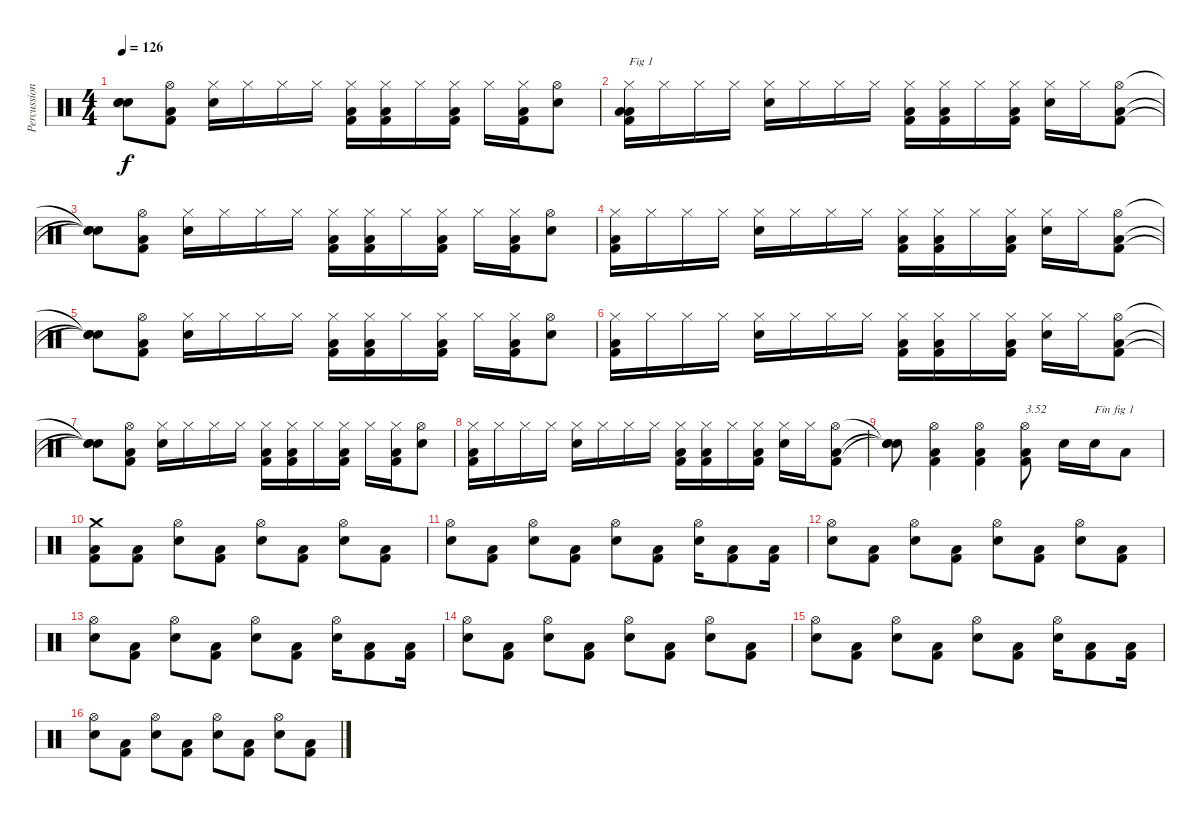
\track ("Percussions" "Percussion") {instrument percussion}
\staff {score}
\articulation defaults
\ts (4 4)
\tempo 126
\clef neutral
\ks c
("Snare (hit)"{t} "Snare (hit)"{t} "Snare (hit)"{t}).8{dy f} ("Kick (hit) 2" "Low Floor Tom (hit)" "Hi-Hat (open)").8 ("Snare (hit) 2" "Hi-Hat (closed)").16 "Hi-Hat (closed)".16 "Hi-Hat (closed)".16 "Hi-Hat (closed)".16 ("Kick (hit) 2" "Low Floor Tom (hit)" "Hi-Hat (closed)").16 ("Kick (hit) 2" "Low Floor Tom (hit)" "Hi-Hat (closed)").16 "Hi-Hat (closed)".16 ("Kick (hit) 2" "Low Floor Tom (hit)" "Hi-Hat (closed)").16 "Hi-Hat (closed)".16 ("Kick (hit) 2" "Low Floor Tom (hit)" "Hi-Hat (closed)").16 ("Snare (hit) 2" "Hi-Hat (open)").8 |
("Kick (hit) 2" "Low Floor Tom (hit)" "Low Tom (hit)" "Hi-Hat (closed)").16{txt "Fig 1"} "Hi-Hat (closed)".16 "Hi-Hat (closed)".16 "Hi-Hat (closed)".16 ("Snare (hit) 2" "Hi-Hat (closed)").16 "Hi-Hat (closed)".16 "Hi-Hat (closed)".16 "Hi-Hat (closed)".16 ("Kick (hit) 2" "Low Floor Tom (hit)" "Hi-Hat (closed)").16 ("Kick (hit) 2" "Low Floor Tom (hit)" "Hi-Hat (closed)").16 "Hi-Hat (closed)".16 ("Kick (hit) 2" "Low Floor Tom (hit)" "Hi-Hat (closed)").16 ("Snare (hit) 2" "Hi-Hat (closed)").16 "Hi-Hat (closed)".16 ("Kick (hit) 2" "Low Floor Tom (hit)" "Hi-Hat (open)").8 |
("Snare (hit)"{t} "Snare (hit)"{t} "Snare (hit)"{t}).8 ("Kick (hit) 2" "Low Floor Tom (hit)" "Hi-Hat (open)").8 ("Snare (hit) 2" "Hi-Hat (closed)").16 "Hi-Hat (closed)".16 "Hi-Hat (closed)".16 "Hi-Hat (closed)".16 ("Kick (hit) 2" "Low Floor Tom (hit)" "Hi-Hat (closed)").16 ("Kick (hit) 2" "Low Floor Tom (hit)" "Hi-Hat (closed)").16 "Hi-Hat (closed)".16 ("Kick (hit) 2" "Low Floor Tom (hit)" "Hi-Hat (closed)").16 "Hi-Hat (closed)".16 ("Kick (hit) 2" "Low Floor Tom (hit)" "Hi-Hat (closed)").16 ("Snare (hit) 2" "Hi-Hat (open)").8 |
("Kick (hit) 2" "Low Floor Tom (hit)" "Hi-Hat (closed)").16 "Hi-Hat (closed)".16 "Hi-Hat (closed)".16 "Hi-Hat (closed)".16 ("Snare (hit) 2" "Hi-Hat (closed)").16 "Hi-Hat (closed)".16 "Hi-Hat (closed)".16 "Hi-Hat (closed)".16 ("Kick (hit) 2" "Low Floor Tom (hit)" "Hi-Hat (closed)").16 ("Kick (hit) 2" "Low Floor Tom (hit)" "Hi-Hat (closed)").16 "Hi-Hat (closed)".16 ("Kick (hit) 2" "Low Floor Tom (hit)" "Hi-Hat (closed)").16 ("Snare (hit) 2" "Hi-Hat (closed)").16 "Hi-Hat (closed)".16 ("Kick (hit) 2" "Low Floor Tom (hit)" "Hi-Hat (open)").8 |
("Snare (hit)"{t} "Snare (hit)"{t} "Snare (hit)"{t}).8 ("Kick (hit) 2" "Low Floor Tom (hit)" "Hi-Hat (open)").8 ("Snare (hit) 2" "Hi-Hat (closed)").16 "Hi-Hat (closed)".16 "Hi-Hat (closed)".16 "Hi-Hat (closed)".16 ("Kick (hit) 2" "Low Floor Tom (hit)" "Hi-Hat (closed)").16 ("Kick (hit) 2" "Low Floor Tom (hit)" "Hi-Hat (closed)").16 "Hi-Hat (closed)".16 ("Kick (hit) 2" "Low Floor Tom (hit)" "Hi-Hat (closed)").16 "Hi-Hat (closed)".16 ("Kick (hit) 2" "Low Floor Tom (hit)" "Hi-Hat (closed)").16 ("Snare (hit) 2" "Hi-Hat (open)").8 |
("Kick (hit) 2" "Low Floor Tom (hit)" "Hi-Hat (closed)").16 "Hi-Hat (closed)".16 "Hi-Hat (closed)".16 "Hi-Hat (closed)".16 ("Snare (hit) 2" "Hi-Hat (closed)").16 "Hi-Hat (closed)".16 "Hi-Hat (closed)".16 "Hi-Hat (closed)".16 ("Kick (hit) 2" "Low Floor Tom (hit)" "Hi-Hat (closed)").16 ("Kick (hit) 2" "Low Floor Tom (hit)" "Hi-Hat (closed)").16 "Hi-Hat (closed)".16 ("Kick (hit) 2" "Low Floor Tom (hit)" "Hi-Hat (closed)").16 ("Snare (hit) 2" "Hi-Hat (closed)").16 "Hi-Hat (closed)".16 ("Kick (hit) 2" "Low Floor Tom (hit)" "Hi-Hat (open)").8 |
("Snare (hit)"{t} "Snare (hit)"{t} "Snare (hit)"{t}).8 ("Kick (hit) 2" "Low Floor Tom (hit)" "Hi-Hat (open)").8 ("Snare (hit) 2" "Hi-Hat (closed)").16 "Hi-Hat (closed)".16 "Hi-Hat (closed)".16 "Hi-Hat (closed)".16 ("Kick (hit) 2" "Low Floor Tom (hit)" "Hi-Hat (closed)").16 ("Kick (hit) 2" "Low Floor Tom (hit)" "Hi-Hat (closed)").16 "Hi-Hat (closed)".16 ("Kick (hit) 2" "Low Floor Tom (hit)" "Hi-Hat (closed)").16 "Hi-Hat (closed)".16 ("Kick (hit) 2" "Low Floor Tom (hit)" "Hi-Hat (closed)").16 ("Snare (hit) 2" "Hi-Hat (open)").8 |
("Kick (hit) 2" "Low Floor Tom (hit)" "Hi-Hat (closed)").16 "Hi-Hat (closed)".16 "Hi-Hat (closed)".16 "Hi-Hat (closed)".16 ("Snare (hit) 2" "Hi-Hat (closed)").16 "Hi-Hat (closed)".16 "Hi-Hat (closed)".16 "Hi-Hat (closed)".16 ("Kick (hit) 2" "Low Floor Tom (hit)" "Hi-Hat (closed)").16 ("Kick (hit) 2" "Low Floor Tom (hit)" "Hi-Hat (closed)").16 "Hi-Hat (closed)".16 ("Kick (hit) 2" "Low Floor Tom (hit)" "Hi-Hat (closed)").16 ("Snare (hit) 2" "Hi-Hat (closed)").16 "Hi-Hat (closed)".16 ("Kick (hit) 2" "Low Floor Tom (hit)" "Hi-Hat (open)").8 |
("Snare (hit)"{t} "Snare (hit)"{t} "Snare (hit)"{t}).8 ("Kick (hit) 2" "Low Floor Tom (hit)" "Hi-Hat (open)").4 ("Kick (hit) 2" "Low Floor Tom (hit)" "Hi-Hat (open)").4 ("Kick (hit) 2" "Low Floor Tom (hit)" "Hi-Hat (open)").8{txt "3.52"} "Snare (hit) 2".16 "Snare (hit) 2".16{txt "Fin fig 1"} "Low Tom (hit)".8 |
("Kick (hit) 2" "Low Floor Tom (hit)" "Crash medium (hit)").8 ("Kick (hit) 2" "Low Floor Tom (hit)").8 ("Snare (hit) 2" "Hi-Hat (open)").8 ("Kick (hit) 2" "Low Floor Tom (hit)").8 ("Snare (hit) 2" "Hi-Hat (open)").8 ("Kick (hit) 2" "Low Floor Tom (hit)").8 ("Snare (hit) 2" "Hi-Hat (open)").8 ("Kick (hit) 2" "Low Floor Tom (hit)").8 |
("Snare (hit) 2" "Hi-Hat (open)").8 ("Kick (hit) 2" "Low Floor Tom (hit)").8 ("Snare (hit) 2" "Hi-Hat (open)").8 ("Kick (hit) 2" "Low Floor Tom (hit)").8 ("Snare (hit) 2" "Hi-Hat (open)").8 ("Kick (hit) 2" "Low Floor Tom (hit)").8 ("Snare (hit) 2" "Hi-Hat (open)").16 ("Kick (hit) 2" "Low Floor Tom (hit)").8 ("Kick (hit) 2" "Low Floor Tom (hit)").16 |
("Snare (hit) 2" "Hi-Hat (open)").8 ("Kick (hit) 2" "Low Floor Tom (hit)").8 ("Snare (hit) 2" "Hi-Hat (open)").8 ("Kick (hit) 2" "Low Floor Tom (hit)").8 ("Snare (hit) 2" "Hi-Hat (open)").8 ("Kick (hit) 2" "Low Floor Tom (hit)").8 ("Snare (hit) 2" "Hi-Hat (open)").8 ("Kick (hit) 2" "Low Floor Tom (hit)").8 |
("Snare (hit) 2" "Hi-Hat (open)").8 ("Kick (hit) 2" "Low Floor Tom (hit)").8 ("Snare (hit) 2" "Hi-Hat (open)").8 ("Kick (hit) 2" "Low Floor Tom (hit)").8 ("Snare (hit) 2" "Hi-Hat (open)").8 ("Kick (hit) 2" "Low Floor Tom (hit)").8 ("Snare (hit) 2" "Hi-Hat (open)").16 ("Kick (hit) 2" "Low Floor Tom (hit)").8 ("Kick (hit) 2" "Low Floor Tom (hit)").16 |
("Snare (hit) 2" "Hi-Hat (open)").8 ("Kick (hit) 2" "Low Floor Tom (hit)").8 ("Snare (hit) 2" "Hi-Hat (open)").8 ("Kick (hit) 2" "Low Floor Tom (hit)").8 ("Snare (hit) 2" "Hi-Hat (open)").8 ("Kick (hit) 2" "Low Floor Tom (hit)").8 ("Snare (hit) 2" "Hi-Hat (open)").8 ("Kick (hit) 2" "Low Floor Tom (hit)").8 |
("Snare (hit) 2" "Hi-Hat (open)").8 ("Kick (hit) 2" "Low Floor Tom (hit)").8 ("Snare (hit) 2" "Hi-Hat (open)").8 ("Kick (hit) 2" "Low Floor Tom (hit)").8 ("Snare (hit) 2" "Hi-Hat (open)").8 ("Kick (hit) 2" "Low Floor Tom (hit)").8 ("Snare (hit) 2" "Hi-Hat (open)").16 ("Kick (hit) 2" "Low Floor Tom (hit)").8 ("Kick (hit) 2" "Low Floor Tom (hit)").16 |
("Snare (hit) 2" "Hi-Hat (open)").8 ("Kick (hit) 2" "Low Floor Tom (hit)").8 ("Snare (hit) 2" "Hi-Hat (open)").8 ("Kick (hit) 2" "Low Floor Tom (hit)").8 ("Snare (hit) 2" "Hi-Hat (open)").8 ("Kick (hit) 2" "Low Floor Tom (hit)").8 ("Snare (hit) 2" "Hi-Hat (open)").8 ("Kick (hit) 2" "Low Floor Tom (hit)").8
